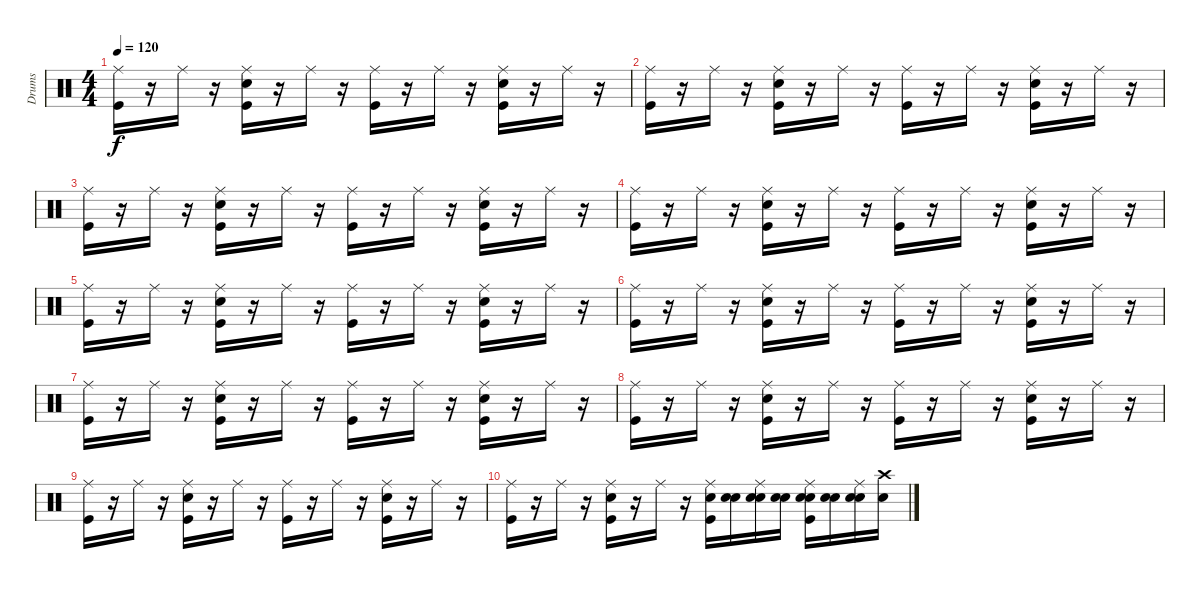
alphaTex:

\track ("Drums" "Drums") {instrument percussion}
\staff {score}
\articulation defaults
\ts (4 4)
\tempo 120
\clef neutral
\ks c
("Kick (hit)" "Ride (middle)").16{dy f} r.16 "Ride (middle)".16 r.16 ("Kick (hit)" "Snare (hit) 2" "Ride (middle)").16 r.16 "Ride (middle)".16 r.16 ("Kick (hit)" "Ride (middle)").16 r.16 "Ride (middle)".16 r.16 ("Kick (hit)" "Snare (hit) 2" "Ride (middle)").16 r.16 "Ride (middle)".16 r.16 |
("Kick (hit)" "Ride (middle)").16 r.16 "Ride (middle)".16 r.16 ("Kick (hit)" "Snare (hit) 2" "Ride (middle)").16 r.16 "Ride (middle)".16 r.16 ("Kick (hit)" "Ride (middle)").16 r.16 "Ride (middle)".16 r.16 ("Kick (hit)" "Snare (hit) 2" "Ride (middle)").16 r.16 "Ride (middle)".16 r.16 |
("Kick (hit)" "Ride (middle)").16 r.16 "Ride (middle)".16 r.16 ("Kick (hit)" "Snare (hit) 2" "Ride (middle)").16 r.16 "Ride (middle)".16 r.16 ("Kick (hit)" "Ride (middle)").16 r.16 "Ride (middle)".16 r.16 ("Kick (hit)" "Snare (hit) 2" "Ride (middle)").16 r.16 "Ride (middle)".16 r.16 |
("Kick (hit)" "Ride (middle)").16 r.16 "Ride (middle)".16 r.16 ("Kick (hit)" "Snare (hit) 2" "Ride (middle)").16 r.16 "Ride (middle)".16 r.16 ("Kick (hit)" "Ride (middle)").16 r.16 "Ride (middle)".16 r.16 ("Kick (hit)" "Snare (hit) 2" "Ride (middle)").16 r.16 "Ride (middle)".16 r.16 |
("Kick (hit)" "Ride (middle)").16 r.16 "Ride (middle)".16 r.16 ("Kick (hit)" "Snare (hit) 2" "Ride (middle)").16 r.16 "Ride (middle)".16 r.16 ("Kick (hit)" "Ride (middle)").16 r.16 "Ride (middle)".16 r.16 ("Kick (hit)" "Snare (hit) 2" "Ride (middle)").16 r.16 "Ride (middle)".16 r.16 |
("Kick (hit)" "Ride (middle)").16 r.16 "Ride (middle)".16 r.16 ("Kick (hit)" "Snare (hit) 2" "Ride (middle)").16 r.16 "Ride (middle)".16 r.16 ("Kick (hit)" "Ride (middle)").16 r.16 "Ride (middle)".16 r.16 ("Kick (hit)" "Snare (hit) 2" "Ride (middle)").16 r.16 "Ride (middle)".16 r.16 |
("Kick (hit)" "Ride (middle)").16 r.16 "Ride (middle)".16 r.16 ("Kick (hit)" "Snare (hit) 2" "Ride (middle)").16 r.16 "Ride (middle)".16 r.16 ("Kick (hit)" "Ride (middle)").16 r.16 "Ride (middle)".16 r.16 ("Kick (hit)" "Snare (hit) 2" "Ride (middle)").16 r.16 "Ride (middle)".16 r.16 |
("Kick (hit)" "Ride (middle)").16 r.16 "Ride (middle)".16 r.16 ("Kick (hit)" "Snare (hit) 2" "Ride (middle)").16 r.16 "Ride (middle)".16 r.16 ("Kick (hit)" "Ride (middle)").16 r.16 "Ride (middle)".16 r.16 ("Kick (hit)" "Snare (hit) 2" "Ride (middle)").16 r.16 "Ride (middle)".16 r.16 |
("Kick (hit)" "Ride (middle)").16 r.16 "Ride (middle)".16 r.16 ("Kick (hit)" "Snare (hit) 2" "Ride (middle)").16 r.16 "Ride (middle)".16 r.16 ("Kick (hit)" "Ride (middle)").16 r.16 "Ride (middle)".16 r.16 ("Kick (hit)" "Snare (hit) 2" "Ride (middle)").16 r.16 "Ride (middle)".16 r.16 |
("Kick (hit)" "Ride (middle)").16 r.16 "Ride (middle)".16 r.16 ("Snare (hit) 2" "Kick (hit)" "Ride (middle)").16 r.16 "Ride (middle)".16 r.16 ("Snare (hit) 2" "Kick (hit)" "Ride (middle)").16 ("Snare (hit)" "Snare (hit) 2").16 ("Snare (hit)" "Snare (hit) 2" "Ride (middle)").16 ("Snare (hit)" "Snare (hit) 2").16 ("Snare (hit)" "Snare (hit) 2" "Kick (hit)" "Ride (middle)").16 ("Snare (hit)" "Snare (hit) 2").16 ("Snare (hit)" "Snare (hit) 2" "Ride (middle)").16 ("Snare (hit)" "Crash high (hit)").16
